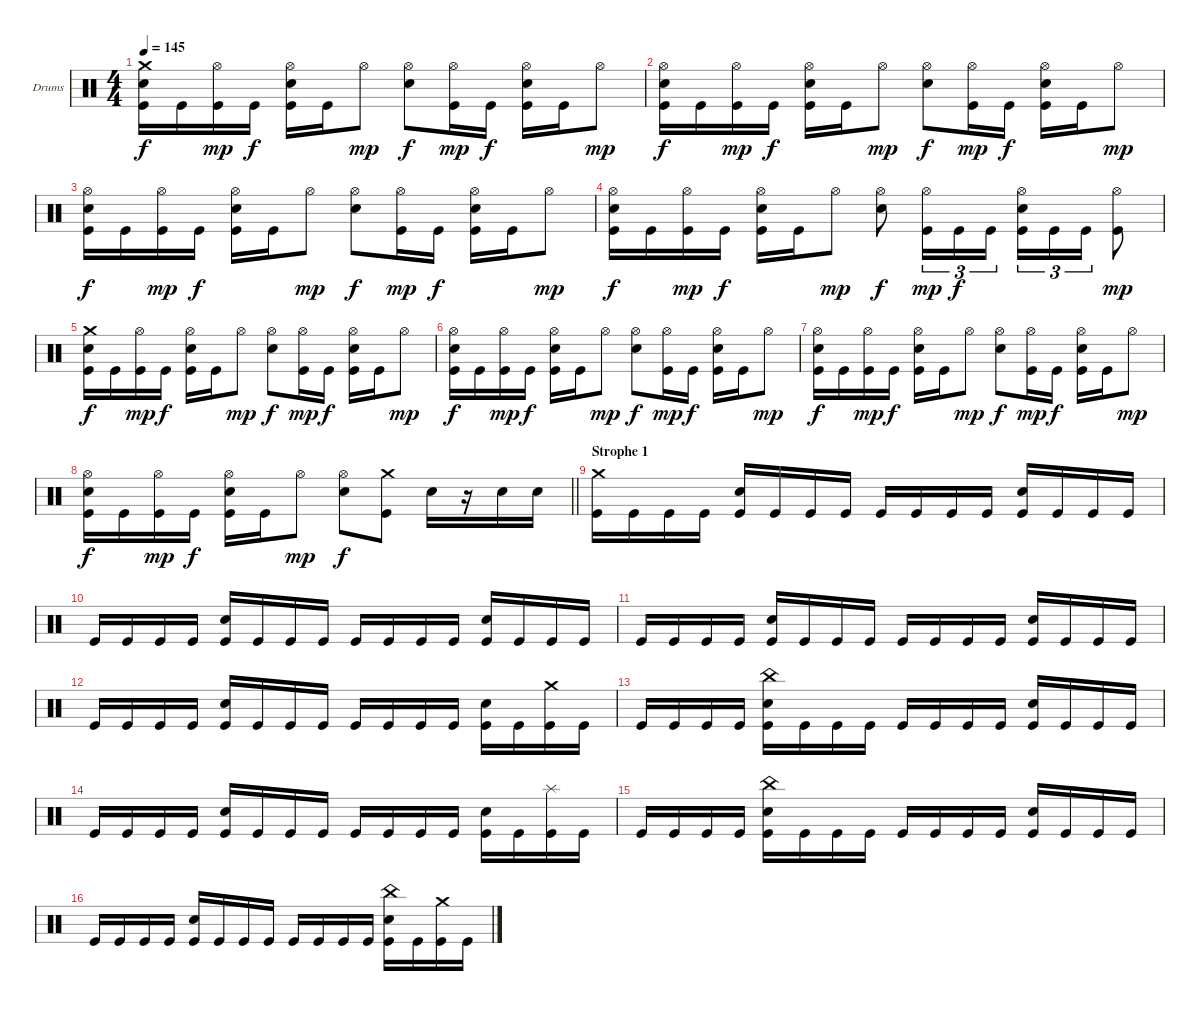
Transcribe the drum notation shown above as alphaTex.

\bracketExtendMode groupsimilarinstruments
\firstSystemTrackNameOrientation horizontal
\otherSystemsTrackNameOrientation horizontal
\track ("Drumkit" "Drums") {instrument percussion}
\staff {score}
\articulation defaults
\ts (4 4)
\tempo 145
\clef neutral
\ks c
("Crash medium (hit)" "Snare (hit) 2" "Kick (hit)").16{dy f} "Kick (hit)".16 ("Hi-Hat (open)" "Kick (hit)").16{dy mp} "Kick (hit)".16{dy f} ("Hi-Hat (open)" "Snare (hit) 2" "Kick (hit)").16 "Kick (hit)".16 "Hi-Hat (open)".8{dy mp} ("Hi-Hat (open)" "Snare (hit) 2").8{dy f} ("Hi-Hat (open)" "Kick (hit)").16{dy mp} "Kick (hit)".16{dy f} ("Hi-Hat (open)" "Snare (hit) 2" "Kick (hit)").16 "Kick (hit)".16 "Hi-Hat (open)".8{dy mp} |
("Hi-Hat (open)" "Snare (hit) 2" "Kick (hit)").16{dy f} "Kick (hit)".16 ("Hi-Hat (open)" "Kick (hit)").16{dy mp} "Kick (hit)".16{dy f} ("Hi-Hat (open)" "Snare (hit) 2" "Kick (hit)").16 "Kick (hit)".16 "Hi-Hat (open)".8{dy mp} ("Hi-Hat (open)" "Snare (hit) 2").8{dy f} ("Hi-Hat (open)" "Kick (hit)").16{dy mp} "Kick (hit)".16{dy f} ("Hi-Hat (open)" "Snare (hit) 2" "Kick (hit)").16 "Kick (hit)".16 "Hi-Hat (open)".8{dy mp} |
("Hi-Hat (open)" "Snare (hit) 2" "Kick (hit)").16{dy f} "Kick (hit)".16 ("Hi-Hat (open)" "Kick (hit)").16{dy mp} "Kick (hit)".16{dy f} ("Hi-Hat (open)" "Snare (hit) 2" "Kick (hit)").16 "Kick (hit)".16 "Hi-Hat (open)".8{dy mp} ("Hi-Hat (open)" "Snare (hit) 2").8{dy f} ("Hi-Hat (open)" "Kick (hit)").16{dy mp} "Kick (hit)".16{dy f} ("Hi-Hat (open)" "Snare (hit) 2" "Kick (hit)").16 "Kick (hit)".16 "Hi-Hat (open)".8{dy mp} |
("Hi-Hat (open)" "Snare (hit) 2" "Kick (hit)").16{dy f} "Kick (hit)".16 ("Hi-Hat (open)" "Kick (hit)").16{dy mp} "Kick (hit)".16{dy f} ("Hi-Hat (open)" "Snare (hit) 2" "Kick (hit)").16 "Kick (hit)".16 "Hi-Hat (open)".8{dy mp} ("Hi-Hat (open)" "Snare (hit) 2").8{dy f} ("Hi-Hat (open)" "Kick (hit)").16{tu (3 2) dy mp} "Kick (hit)".16{tu (3 2) dy f} "Kick (hit)".16{tu (3 2)} ("Hi-Hat (open)" "Snare (hit) 2" "Kick (hit)").16{tu (3 2)} "Kick (hit)".16{tu (3 2)} "Kick (hit)".16{tu (3 2)} ("Hi-Hat (open)" "Kick (hit)").8{dy mp} |
("Crash medium (hit)" "Snare (hit) 2" "Kick (hit)").16{dy f} "Kick (hit)".16 ("Hi-Hat (open)" "Kick (hit)").16{dy mp} "Kick (hit)".16{dy f} ("Hi-Hat (open)" "Snare (hit) 2" "Kick (hit)").16 "Kick (hit)".16 "Hi-Hat (open)".8{dy mp} ("Hi-Hat (open)" "Snare (hit) 2").8{dy f} ("Hi-Hat (open)" "Kick (hit)").16{dy mp} "Kick (hit)".16{dy f} ("Hi-Hat (open)" "Snare (hit) 2" "Kick (hit)").16 "Kick (hit)".16 "Hi-Hat (open)".8{dy mp} |
("Hi-Hat (open)" "Snare (hit) 2" "Kick (hit)").16{dy f} "Kick (hit)".16 ("Hi-Hat (open)" "Kick (hit)").16{dy mp} "Kick (hit)".16{dy f} ("Hi-Hat (open)" "Snare (hit) 2" "Kick (hit)").16 "Kick (hit)".16 "Hi-Hat (open)".8{dy mp} ("Hi-Hat (open)" "Snare (hit) 2").8{dy f} ("Hi-Hat (open)" "Kick (hit)").16{dy mp} "Kick (hit)".16{dy f} ("Hi-Hat (open)" "Snare (hit) 2" "Kick (hit)").16 "Kick (hit)".16 "Hi-Hat (open)".8{dy mp} |
("Hi-Hat (open)" "Snare (hit) 2" "Kick (hit)").16{dy f} "Kick (hit)".16 ("Hi-Hat (open)" "Kick (hit)").16{dy mp} "Kick (hit)".16{dy f} ("Hi-Hat (open)" "Snare (hit) 2" "Kick (hit)").16 "Kick (hit)".16 "Hi-Hat (open)".8{dy mp} ("Hi-Hat (open)" "Snare (hit) 2").8{dy f} ("Hi-Hat (open)" "Kick (hit)").16{dy mp} "Kick (hit)".16{dy f} ("Hi-Hat (open)" "Snare (hit) 2" "Kick (hit)").16 "Kick (hit)".16 "Hi-Hat (open)".8{dy mp} |
\barLineRight lightlight
("Hi-Hat (open)" "Snare (hit) 2" "Kick (hit)").16{dy f} "Kick (hit)".16 ("Hi-Hat (open)" "Kick (hit)").16{dy mp} "Kick (hit)".16{dy f} ("Hi-Hat (open)" "Snare (hit) 2" "Kick (hit)").16 "Kick (hit)".16 "Hi-Hat (open)".8{dy mp} ("Hi-Hat (open)" "Snare (hit) 2").8{dy f} ("Crash medium (hit)" "Kick (hit)").8 "Snare (hit) 2".16 r.16 "Snare (hit) 2".16 "Snare (hit) 2".16 |
\section ("" "Strophe 1")
("Crash medium (hit)" "Kick (hit)").16 "Kick (hit)".16 "Kick (hit)".16 "Kick (hit)".16 ("Snare (hit) 2" "Kick (hit)").16 "Kick (hit)".16 "Kick (hit)".16 "Kick (hit)".16 "Kick (hit)".16 "Kick (hit)".16 "Kick (hit)".16 "Kick (hit)".16 ("Snare (hit) 2" "Kick (hit)").16 "Kick (hit)".16 "Kick (hit)".16 "Kick (hit)".16 |
"Kick (hit)".16 "Kick (hit)".16 "Kick (hit)".16 "Kick (hit)".16 ("Snare (hit) 2" "Kick (hit)").16 "Kick (hit)".16 "Kick (hit)".16 "Kick (hit)".16 "Kick (hit)".16 "Kick (hit)".16 "Kick (hit)".16 "Kick (hit)".16 ("Snare (hit) 2" "Kick (hit)").16 "Kick (hit)".16 "Kick (hit)".16 "Kick (hit)".16 |
"Kick (hit)".16 "Kick (hit)".16 "Kick (hit)".16 "Kick (hit)".16 ("Snare (hit) 2" "Kick (hit)").16 "Kick (hit)".16 "Kick (hit)".16 "Kick (hit)".16 "Kick (hit)".16 "Kick (hit)".16 "Kick (hit)".16 "Kick (hit)".16 ("Snare (hit) 2" "Kick (hit)").16 "Kick (hit)".16 "Kick (hit)".16 "Kick (hit)".16 |
"Kick (hit)".16 "Kick (hit)".16 "Kick (hit)".16 "Kick (hit)".16 ("Snare (hit) 2" "Kick (hit)").16 "Kick (hit)".16 "Kick (hit)".16 "Kick (hit)".16 "Kick (hit)".16 "Kick (hit)".16 "Kick (hit)".16 "Kick (hit)".16 ("Snare (hit) 2" "Kick (hit)").16 "Kick (hit)".16 ("Crash medium (hit)" "Kick (hit)").16 "Kick (hit)".16 |
"Kick (hit)".16 "Kick (hit)".16 "Kick (hit)".16 "Kick (hit)".16 ("China (hit)" "Snare (hit) 2" "Kick (hit)").16 "Kick (hit)".16 "Kick (hit)".16 "Kick (hit)".16 "Kick (hit)".16 "Kick (hit)".16 "Kick (hit)".16 "Kick (hit)".16 ("Snare (hit) 2" "Kick (hit)").16 "Kick (hit)".16 "Kick (hit)".16 "Kick (hit)".16 |
"Kick (hit)".16 "Kick (hit)".16 "Kick (hit)".16 "Kick (hit)".16 ("Snare (hit) 2" "Kick (hit)").16 "Kick (hit)".16 "Kick (hit)".16 "Kick (hit)".16 "Kick (hit)".16 "Kick (hit)".16 "Kick (hit)".16 "Kick (hit)".16 ("Snare (hit) 2" "Kick (hit)").16 "Kick (hit)".16 ("Splash (hit)" "Kick (hit)").16 "Kick (hit)".16 |
"Kick (hit)".16 "Kick (hit)".16 "Kick (hit)".16 "Kick (hit)".16 ("China (hit)" "Snare (hit) 2" "Kick (hit)").16 "Kick (hit)".16 "Kick (hit)".16 "Kick (hit)".16 "Kick (hit)".16 "Kick (hit)".16 "Kick (hit)".16 "Kick (hit)".16 ("Snare (hit) 2" "Kick (hit)").16 "Kick (hit)".16 "Kick (hit)".16 "Kick (hit)".16 |
"Kick (hit)".16 "Kick (hit)".16 "Kick (hit)".16 "Kick (hit)".16 ("Snare (hit) 2" "Kick (hit)").16 "Kick (hit)".16 "Kick (hit)".16 "Kick (hit)".16 "Kick (hit)".16 "Kick (hit)".16 "Kick (hit)".16 "Kick (hit)".16 ("China (hit)" "Snare (hit) 2" "Kick (hit)").16 "Kick (hit)".16 ("Crash medium (hit)" "Kick (hit)").16 "Kick (hit)".16
